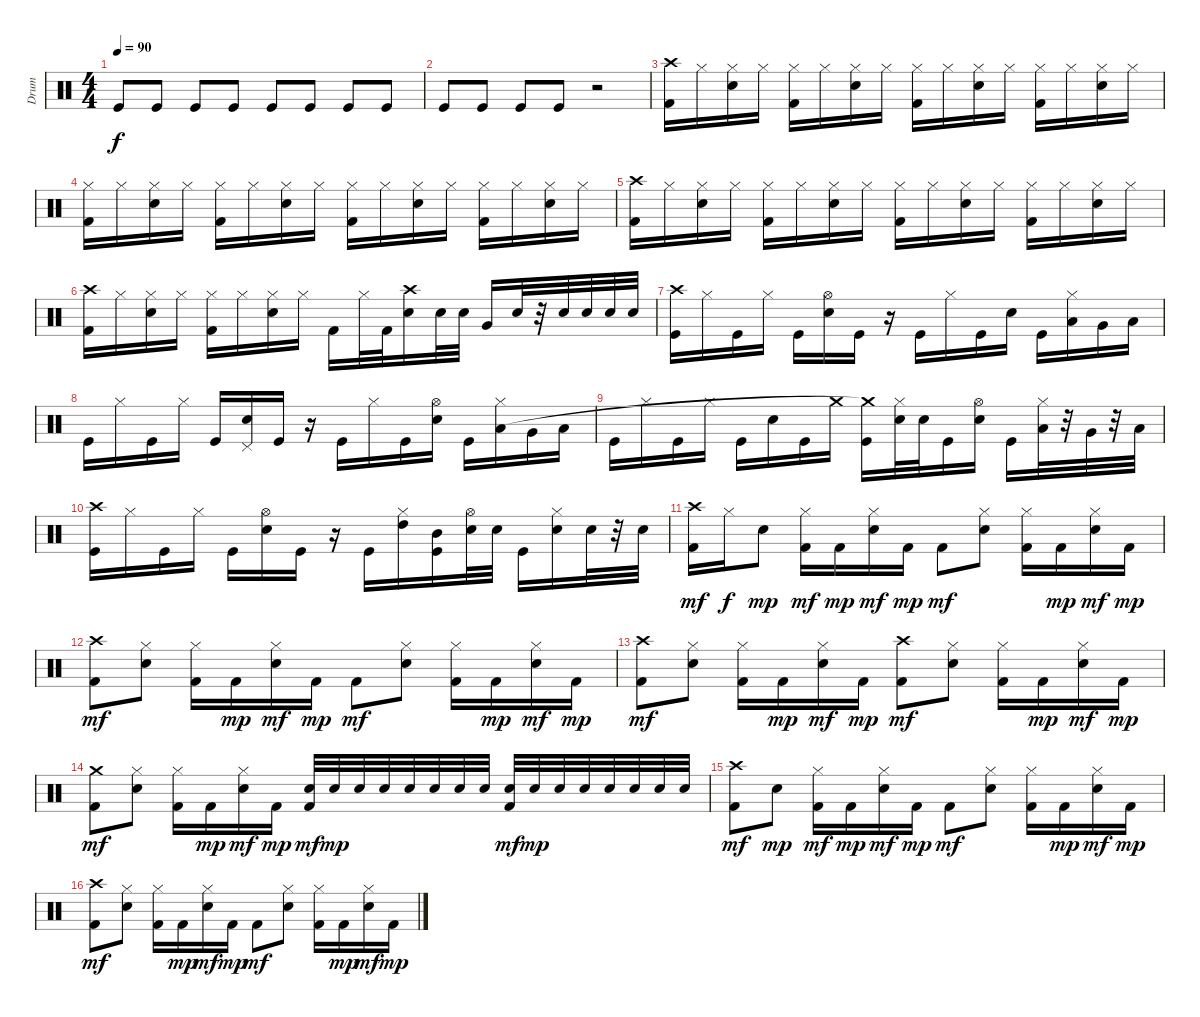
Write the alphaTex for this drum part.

\track ("Drum" "Drum") {instrument percussion}
\staff {score}
\articulation defaults
\ts (4 4)
\tempo 90
\clef neutral
\ks c "Kick (hit)".8{dy f} "Kick (hit)".8 "Kick (hit)".8 "Kick (hit)".8 "Kick (hit)".8 "Kick (hit)".8 "Kick (hit)".8 "Kick (hit)".8
|
"Kick (hit)".8 "Kick (hit)".8 "Kick (hit)".8 "Kick (hit)".8 r.2 |
("Kick (hit) 2" "Crash high (hit)").16 "Hi-Hat (closed)".16 ("Hi-Hat (closed)" "Snare (hit) 2").16 "Hi-Hat (closed)".16 ("Hi-Hat (closed)" "Kick (hit) 2").16 "Hi-Hat (closed)".16 ("Hi-Hat (closed)" "Snare (hit) 2").16 "Hi-Hat (closed)".16 ("Hi-Hat (closed)" "Kick (hit) 2").16 "Hi-Hat (closed)".16 ("Hi-Hat (closed)" "Snare (hit) 2").16 "Hi-Hat (closed)".16 ("Hi-Hat (closed)" "Kick (hit) 2").16 "Hi-Hat (closed)".16 ("Hi-Hat (closed)" "Snare (hit) 2").16 "Hi-Hat (closed)".16 |
("Hi-Hat (closed)" "Kick (hit) 2").16 "Hi-Hat (closed)".16 ("Hi-Hat (closed)" "Snare (hit) 2").16 "Hi-Hat (closed)".16 ("Hi-Hat (closed)" "Kick (hit) 2").16 "Hi-Hat (closed)".16 ("Hi-Hat (closed)" "Snare (hit) 2").16 "Hi-Hat (closed)".16 ("Hi-Hat (closed)" "Kick (hit) 2").16 "Hi-Hat (closed)".16 ("Hi-Hat (closed)" "Snare (hit) 2").16 "Hi-Hat (closed)".16 ("Hi-Hat (closed)" "Kick (hit) 2").16 "Hi-Hat (closed)".16 ("Hi-Hat (closed)" "Snare (hit) 2").16 "Hi-Hat (closed)".16 |
("Kick (hit) 2" "Crash high (hit)").16 "Hi-Hat (closed)".16 ("Hi-Hat (closed)" "Snare (hit) 2").16 "Hi-Hat (closed)".16 ("Hi-Hat (closed)" "Kick (hit) 2").16 "Hi-Hat (closed)".16 ("Hi-Hat (closed)" "Snare (hit) 2").16 "Hi-Hat (closed)".16 ("Hi-Hat (closed)" "Kick (hit) 2").16 "Hi-Hat (closed)".16 ("Hi-Hat (closed)" "Snare (hit) 2").16 "Hi-Hat (closed)".16 ("Hi-Hat (closed)" "Kick (hit) 2").16 "Hi-Hat (closed)".16 ("Hi-Hat (closed)" "Snare (hit) 2").16 "Hi-Hat (closed)".16 |
("Kick (hit) 2" "Crash high (hit)").16 "Hi-Hat (closed)".16 ("Hi-Hat (closed)" "Snare (hit) 2").16 "Hi-Hat (closed)".16 ("Hi-Hat (closed)" "Kick (hit) 2").16 "Hi-Hat (closed)".16 ("Hi-Hat (closed)" "Snare (hit) 2").16 "Hi-Hat (closed)".16 "Kick (hit) 2".16 "Hi-Hat (closed)".32 "Kick (hit) 2".32 ("Snare (hit) 2" "Crash high (hit)").16 "Snare (hit) 2".32 "Snare (hit) 2".32 "Very Low Tom (hit)".16 "Snare (hit) 2".32 r.32 "Snare (hit) 2".32 "Snare (hit) 2".32 "Snare (hit) 2".32 "Snare (hit) 2".32 |
("Kick (hit)" "Crash high (hit)").16 "Hi-Hat (closed)".16 "Kick (hit)".16 "Hi-Hat (closed)".16 "Kick (hit)".16 ("Snare (hit) 2" "Hi-Hat (open)").16 "Kick (hit)".16 r.16 "Kick (hit)".16 "Hi-Hat (closed)".16 "Kick (hit)".16 "Snare (hit) 2".16 "Kick (hit)".16 ("Hi-Hat (closed)" "Low Tom (hit)").16 "Very Low Tom (hit)".16 "Low Floor Tom (hit)".16 |
"Kick (hit)".16 "Hi-Hat (closed)".16 "Kick (hit)".16 "Hi-Hat (closed)".16 "Kick (hit)".16 ("Snare (hit) 2" "Pedal Hi-Hat (hit)").16 "Kick (hit)".16 r.16 "Kick (hit)".16 "Hi-Hat (closed)".16 "Kick (hit)".16 ("Snare (hit) 2" "Hi-Hat (open)").16 "Kick (hit)".16 ("Hi-Hat (closed)" "Low Tom (hit)").16 "Very Low Tom (hit)".16 "Low Floor Tom (hit)".16 |
"Kick (hit)".16 "Hi-Hat (closed)".16 "Kick (hit)".16 "Hi-Hat (closed)".16 "Kick (hit)".16 "Snare (hit) 2".16 "Kick (hit)".16 "Crash medium (hit)".16 ("Kick (hit)" "Crash medium (hit)"{t}).16 ("Hi-Hat (closed)" "Snare (hit) 2").32 "Snare (hit) 2".32 "Kick (hit)".16 ("Snare (hit) 2" "Hi-Hat (open)").16 "Kick (hit)".16 ("Hi-Hat (closed)" "Low Tom (hit)").32 r.32 "Very Low Tom (hit)".32 r.32 "Low Floor Tom (hit)".32 |
("Kick (hit)" "Crash high (hit)").16 "Hi-Hat (closed)".16 "Kick (hit)".16 "Hi-Hat (closed)".16 "Kick (hit)".16 ("Snare (hit) 2" "Hi-Hat (open)").16 "Kick (hit)".16 r.16 "Kick (hit)".16 ("Hi-Hat (closed)" "High Tom (hit)").16 ("Kick (hit)" "Mid Tom (hit)").16 ("Snare (hit) 2" "Hi-Hat (open)").32 "Snare (hit) 2".32 "Kick (hit)".16 ("Hi-Hat (closed)" "Electric Snare (hit)").16 "Electric Snare (hit)".32 r.32 "Electric Snare (hit)".32 |
("Crash high (hit)" "Kick (hit) 2").16{dy mf} "Hi-Hat (closed)".16{dy f} "Snare (hit) 2".8{dy mp} ("Hi-Hat (closed)" "Kick (hit) 2").16{dy mf} "Kick (hit) 2".16{dy mp} ("Snare (hit) 2" "Hi-Hat (closed)").16{dy mf} "Kick (hit) 2".16{dy mp} "Kick (hit) 2".8{dy mf} ("Snare (hit) 2" "Hi-Hat (closed)").8 ("Hi-Hat (closed)" "Kick (hit) 2").16 "Kick (hit) 2".16{dy mp} ("Snare (hit) 2" "Hi-Hat (closed)").16{dy mf} "Kick (hit) 2".16{dy mp} |
("Crash high (hit)" "Kick (hit) 2").8{dy mf} ("Snare (hit) 2" "Hi-Hat (closed)").8 ("Hi-Hat (closed)" "Kick (hit) 2").16 "Kick (hit) 2".16{dy mp} ("Snare (hit) 2" "Hi-Hat (closed)").16{dy mf} "Kick (hit) 2".16{dy mp} "Kick (hit) 2".8{dy mf} ("Snare (hit) 2" "Hi-Hat (closed)").8 ("Hi-Hat (closed)" "Kick (hit) 2").16 "Kick (hit) 2".16{dy mp} ("Snare (hit) 2" "Hi-Hat (closed)").16{dy mf} "Kick (hit) 2".16{dy mp} |
("Crash high (hit)" "Kick (hit) 2").8{dy mf} ("Snare (hit) 2" "Hi-Hat (closed)").8 ("Hi-Hat (closed)" "Kick (hit) 2").16 "Kick (hit) 2".16{dy mp} ("Snare (hit) 2" "Hi-Hat (closed)").16{dy mf} "Kick (hit) 2".16{dy mp} ("Crash high (hit)" "Kick (hit) 2").8{dy mf} ("Snare (hit) 2" "Hi-Hat (closed)").8 ("Hi-Hat (closed)" "Kick (hit) 2").16 "Kick (hit) 2".16{dy mp} ("Snare (hit) 2" "Hi-Hat (closed)").16{dy mf} "Kick (hit) 2".16{dy mp} |
("Crash medium (hit)" "Kick (hit) 2").8{dy mf} ("Snare (hit) 2" "Hi-Hat (closed)").8 ("Hi-Hat (closed)" "Kick (hit) 2").16 "Kick (hit) 2".16{dy mp} ("Snare (hit) 2" "Hi-Hat (closed)").16{dy mf} "Kick (hit) 2".16{dy mp} ("Snare (hit) 2" "Kick (hit) 2").32{dy mf} "Snare (hit) 2".32{dy mp} "Snare (hit) 2".32 "Snare (hit) 2".32 "Snare (hit) 2".32 "Snare (hit) 2".32 "Snare (hit) 2".32 "Snare (hit) 2".32 ("Snare (hit) 2" "Kick (hit) 2").32{dy mf} "Snare (hit) 2".32{dy mp} "Snare (hit) 2".32 "Snare (hit) 2".32 "Snare (hit) 2".32 "Snare (hit) 2".32 "Snare (hit) 2".32 "Snare (hit) 2".32 |
("Crash high (hit)" "Kick (hit) 2").8{dy mf} "Snare (hit) 2".8{dy mp} ("Hi-Hat (closed)" "Kick (hit) 2").16{dy mf} "Kick (hit) 2".16{dy mp} ("Snare (hit) 2" "Hi-Hat (closed)").16{dy mf} "Kick (hit) 2".16{dy mp} "Kick (hit) 2".8{dy mf} ("Snare (hit) 2" "Hi-Hat (closed)").8 ("Hi-Hat (closed)" "Kick (hit) 2").16 "Kick (hit) 2".16{dy mp} ("Snare (hit) 2" "Hi-Hat (closed)").16{dy mf} "Kick (hit) 2".16{dy mp} |
("Crash high (hit)" "Kick (hit) 2").8{dy mf} ("Snare (hit) 2" "Hi-Hat (closed)").8 ("Hi-Hat (closed)" "Kick (hit) 2").16 "Kick (hit) 2".16{dy mp} ("Snare (hit) 2" "Hi-Hat (closed)").16{dy mf} "Kick (hit) 2".16{dy mp} "Kick (hit) 2".8{dy mf} ("Snare (hit) 2" "Hi-Hat (closed)").8 ("Hi-Hat (closed)" "Kick (hit) 2").16 "Kick (hit) 2".16{dy mp} ("Snare (hit) 2" "Hi-Hat (closed)").16{dy mf} "Kick (hit) 2".16{dy mp}
